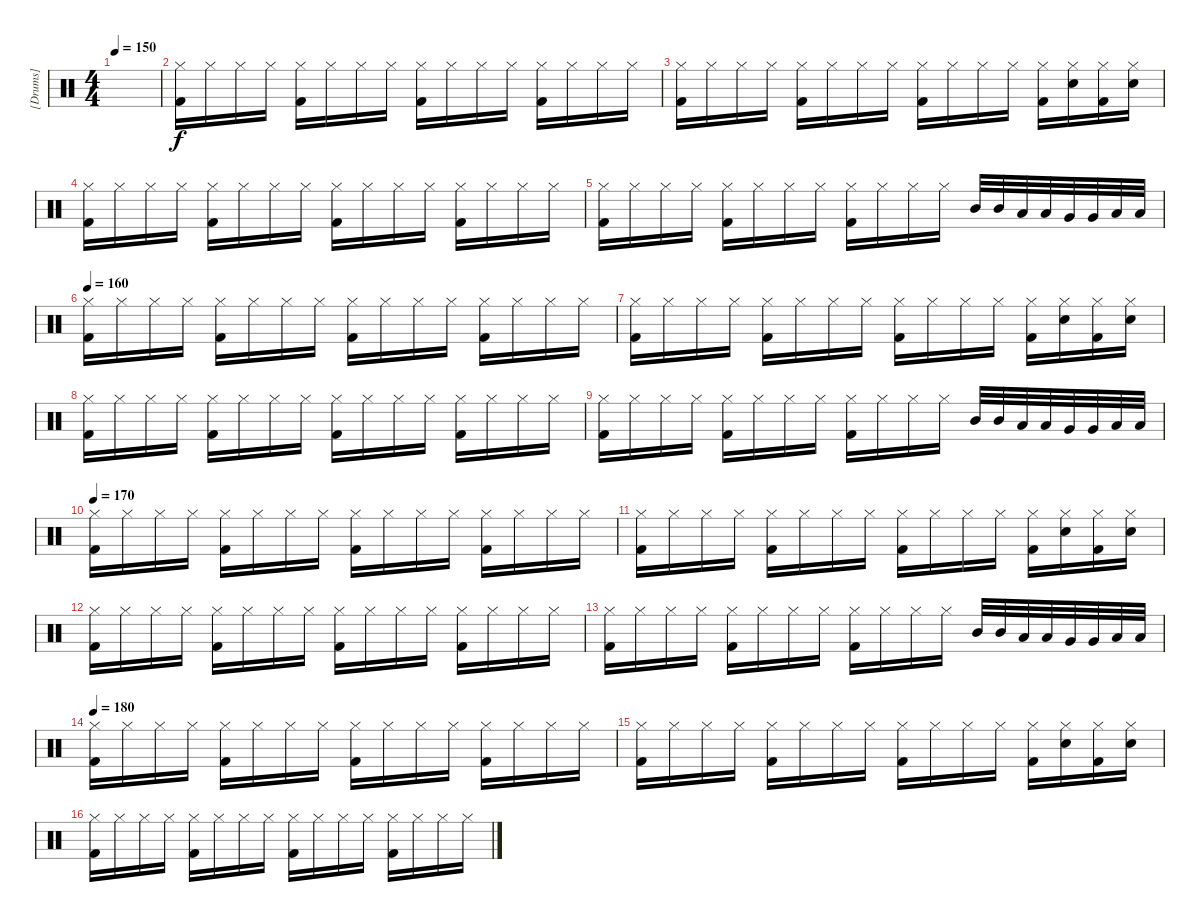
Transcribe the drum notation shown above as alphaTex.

\track ("[Drums]" "[Drums]") {instrument percussion}
\staff {score}
\articulation defaults
\ts (4 4)
\tempo 150
\clef neutral
\ks c
|
("Hi-Hat (closed)" "Kick (hit) 2").16 "Hi-Hat (closed)".16 "Hi-Hat (closed)".16 "Hi-Hat (closed)".16 ("Hi-Hat (closed)" "Kick (hit) 2").16 "Hi-Hat (closed)".16 "Hi-Hat (closed)".16 "Hi-Hat (closed)".16 ("Hi-Hat (closed)" "Kick (hit) 2").16 "Hi-Hat (closed)".16 "Hi-Hat (closed)".16 "Hi-Hat (closed)".16 ("Hi-Hat (closed)" "Kick (hit) 2").16 "Hi-Hat (closed)".16 "Hi-Hat (closed)".16 "Hi-Hat (closed)".16 |
("Hi-Hat (closed)" "Kick (hit) 2").16 "Hi-Hat (closed)".16 "Hi-Hat (closed)".16 "Hi-Hat (closed)".16 ("Hi-Hat (closed)" "Kick (hit) 2").16 "Hi-Hat (closed)".16 "Hi-Hat (closed)".16 "Hi-Hat (closed)".16 ("Hi-Hat (closed)" "Kick (hit) 2").16 "Hi-Hat (closed)".16 "Hi-Hat (closed)".16 "Hi-Hat (closed)".16 ("Hi-Hat (closed)" "Kick (hit) 2").16 ("Hi-Hat (closed)" "Electric Snare (hit)").16 ("Hi-Hat (closed)" "Kick (hit) 2").16 ("Hi-Hat (closed)" "Electric Snare (hit)").16 |
("Hi-Hat (closed)" "Kick (hit) 2").16 "Hi-Hat (closed)".16 "Hi-Hat (closed)".16 "Hi-Hat (closed)".16 ("Hi-Hat (closed)" "Kick (hit) 2").16 "Hi-Hat (closed)".16 "Hi-Hat (closed)".16 "Hi-Hat (closed)".16 ("Hi-Hat (closed)" "Kick (hit) 2").16 "Hi-Hat (closed)".16 "Hi-Hat (closed)".16 "Hi-Hat (closed)".16 ("Hi-Hat (closed)" "Kick (hit) 2").16 "Hi-Hat (closed)".16 "Hi-Hat (closed)".16 "Hi-Hat (closed)".16 |
("Hi-Hat (closed)" "Kick (hit) 2").16 "Hi-Hat (closed)".16 "Hi-Hat (closed)".16 "Hi-Hat (closed)".16 ("Hi-Hat (closed)" "Kick (hit) 2").16 "Hi-Hat (closed)".16 "Hi-Hat (closed)".16 "Hi-Hat (closed)".16 ("Hi-Hat (closed)" "Kick (hit) 2").16 "Hi-Hat (closed)".16 "Hi-Hat (closed)".16 "Hi-Hat (closed)".16 "Mid Tom (hit)".32 "Mid Tom (hit)".32 "Low Tom (hit)".32 "Low Tom (hit)".32 "Very Low Tom (hit)".32 "Very Low Tom (hit)".32 "Low Floor Tom (hit)".32 "Low Floor Tom (hit)".32 |
\tempo 160
("Hi-Hat (closed)" "Kick (hit) 2").16 "Hi-Hat (closed)".16 "Hi-Hat (closed)".16 "Hi-Hat (closed)".16 ("Hi-Hat (closed)" "Kick (hit) 2").16 "Hi-Hat (closed)".16 "Hi-Hat (closed)".16 "Hi-Hat (closed)".16 ("Hi-Hat (closed)" "Kick (hit) 2").16 "Hi-Hat (closed)".16 "Hi-Hat (closed)".16 "Hi-Hat (closed)".16 ("Hi-Hat (closed)" "Kick (hit) 2").16 "Hi-Hat (closed)".16 "Hi-Hat (closed)".16 "Hi-Hat (closed)".16 |
("Hi-Hat (closed)" "Kick (hit) 2").16 "Hi-Hat (closed)".16 "Hi-Hat (closed)".16 "Hi-Hat (closed)".16 ("Hi-Hat (closed)" "Kick (hit) 2").16 "Hi-Hat (closed)".16 "Hi-Hat (closed)".16 "Hi-Hat (closed)".16 ("Hi-Hat (closed)" "Kick (hit) 2").16 "Hi-Hat (closed)".16 "Hi-Hat (closed)".16 "Hi-Hat (closed)".16 ("Hi-Hat (closed)" "Kick (hit) 2").16 ("Hi-Hat (closed)" "Electric Snare (hit)").16 ("Hi-Hat (closed)" "Kick (hit) 2").16 ("Hi-Hat (closed)" "Electric Snare (hit)").16 |
("Hi-Hat (closed)" "Kick (hit) 2").16 "Hi-Hat (closed)".16 "Hi-Hat (closed)".16 "Hi-Hat (closed)".16 ("Hi-Hat (closed)" "Kick (hit) 2").16 "Hi-Hat (closed)".16 "Hi-Hat (closed)".16 "Hi-Hat (closed)".16 ("Hi-Hat (closed)" "Kick (hit) 2").16 "Hi-Hat (closed)".16 "Hi-Hat (closed)".16 "Hi-Hat (closed)".16 ("Hi-Hat (closed)" "Kick (hit) 2").16 "Hi-Hat (closed)".16 "Hi-Hat (closed)".16 "Hi-Hat (closed)".16 |
("Hi-Hat (closed)" "Kick (hit) 2").16 "Hi-Hat (closed)".16 "Hi-Hat (closed)".16 "Hi-Hat (closed)".16 ("Hi-Hat (closed)" "Kick (hit) 2").16 "Hi-Hat (closed)".16 "Hi-Hat (closed)".16 "Hi-Hat (closed)".16 ("Hi-Hat (closed)" "Kick (hit) 2").16 "Hi-Hat (closed)".16 "Hi-Hat (closed)".16 "Hi-Hat (closed)".16 "Mid Tom (hit)".32 "Mid Tom (hit)".32 "Low Tom (hit)".32 "Low Tom (hit)".32 "Very Low Tom (hit)".32 "Very Low Tom (hit)".32 "Low Floor Tom (hit)".32 "Low Floor Tom (hit)".32 |
\tempo 170
("Hi-Hat (closed)" "Kick (hit) 2").16 "Hi-Hat (closed)".16 "Hi-Hat (closed)".16 "Hi-Hat (closed)".16 ("Hi-Hat (closed)" "Kick (hit) 2").16 "Hi-Hat (closed)".16 "Hi-Hat (closed)".16 "Hi-Hat (closed)".16 ("Hi-Hat (closed)" "Kick (hit) 2").16 "Hi-Hat (closed)".16 "Hi-Hat (closed)".16 "Hi-Hat (closed)".16 ("Hi-Hat (closed)" "Kick (hit) 2").16 "Hi-Hat (closed)".16 "Hi-Hat (closed)".16 "Hi-Hat (closed)".16 |
("Hi-Hat (closed)" "Kick (hit) 2").16 "Hi-Hat (closed)".16 "Hi-Hat (closed)".16 "Hi-Hat (closed)".16 ("Hi-Hat (closed)" "Kick (hit) 2").16 "Hi-Hat (closed)".16 "Hi-Hat (closed)".16 "Hi-Hat (closed)".16 ("Hi-Hat (closed)" "Kick (hit) 2").16 "Hi-Hat (closed)".16 "Hi-Hat (closed)".16 "Hi-Hat (closed)".16 ("Hi-Hat (closed)" "Kick (hit) 2").16 ("Hi-Hat (closed)" "Electric Snare (hit)").16 ("Hi-Hat (closed)" "Kick (hit) 2").16 ("Hi-Hat (closed)" "Electric Snare (hit)").16 |
("Hi-Hat (closed)" "Kick (hit) 2").16 "Hi-Hat (closed)".16 "Hi-Hat (closed)".16 "Hi-Hat (closed)".16 ("Hi-Hat (closed)" "Kick (hit) 2").16 "Hi-Hat (closed)".16 "Hi-Hat (closed)".16 "Hi-Hat (closed)".16 ("Hi-Hat (closed)" "Kick (hit) 2").16 "Hi-Hat (closed)".16 "Hi-Hat (closed)".16 "Hi-Hat (closed)".16 ("Hi-Hat (closed)" "Kick (hit) 2").16 "Hi-Hat (closed)".16 "Hi-Hat (closed)".16 "Hi-Hat (closed)".16 |
("Hi-Hat (closed)" "Kick (hit) 2").16 "Hi-Hat (closed)".16 "Hi-Hat (closed)".16 "Hi-Hat (closed)".16 ("Hi-Hat (closed)" "Kick (hit) 2").16 "Hi-Hat (closed)".16 "Hi-Hat (closed)".16 "Hi-Hat (closed)".16 ("Hi-Hat (closed)" "Kick (hit) 2").16 "Hi-Hat (closed)".16 "Hi-Hat (closed)".16 "Hi-Hat (closed)".16 "Mid Tom (hit)".32 "Mid Tom (hit)".32 "Low Tom (hit)".32 "Low Tom (hit)".32 "Very Low Tom (hit)".32 "Very Low Tom (hit)".32 "Low Floor Tom (hit)".32 "Low Floor Tom (hit)".32 |
\tempo 180
("Hi-Hat (closed)" "Kick (hit) 2").16 "Hi-Hat (closed)".16 "Hi-Hat (closed)".16 "Hi-Hat (closed)".16 ("Hi-Hat (closed)" "Kick (hit) 2").16 "Hi-Hat (closed)".16 "Hi-Hat (closed)".16 "Hi-Hat (closed)".16 ("Hi-Hat (closed)" "Kick (hit) 2").16 "Hi-Hat (closed)".16 "Hi-Hat (closed)".16 "Hi-Hat (closed)".16 ("Hi-Hat (closed)" "Kick (hit) 2").16 "Hi-Hat (closed)".16 "Hi-Hat (closed)".16 "Hi-Hat (closed)".16 |
("Hi-Hat (closed)" "Kick (hit) 2").16 "Hi-Hat (closed)".16 "Hi-Hat (closed)".16 "Hi-Hat (closed)".16 ("Hi-Hat (closed)" "Kick (hit) 2").16 "Hi-Hat (closed)".16 "Hi-Hat (closed)".16 "Hi-Hat (closed)".16 ("Hi-Hat (closed)" "Kick (hit) 2").16 "Hi-Hat (closed)".16 "Hi-Hat (closed)".16 "Hi-Hat (closed)".16 ("Hi-Hat (closed)" "Kick (hit) 2").16 ("Hi-Hat (closed)" "Electric Snare (hit)").16 ("Hi-Hat (closed)" "Kick (hit) 2").16 ("Hi-Hat (closed)" "Electric Snare (hit)").16 |
("Hi-Hat (closed)" "Kick (hit) 2").16 "Hi-Hat (closed)".16 "Hi-Hat (closed)".16 "Hi-Hat (closed)".16 ("Hi-Hat (closed)" "Kick (hit) 2").16 "Hi-Hat (closed)".16 "Hi-Hat (closed)".16 "Hi-Hat (closed)".16 ("Hi-Hat (closed)" "Kick (hit) 2").16 "Hi-Hat (closed)".16 "Hi-Hat (closed)".16 "Hi-Hat (closed)".16 ("Hi-Hat (closed)" "Kick (hit) 2").16 "Hi-Hat (closed)".16 "Hi-Hat (closed)".16 "Hi-Hat (closed)".16
